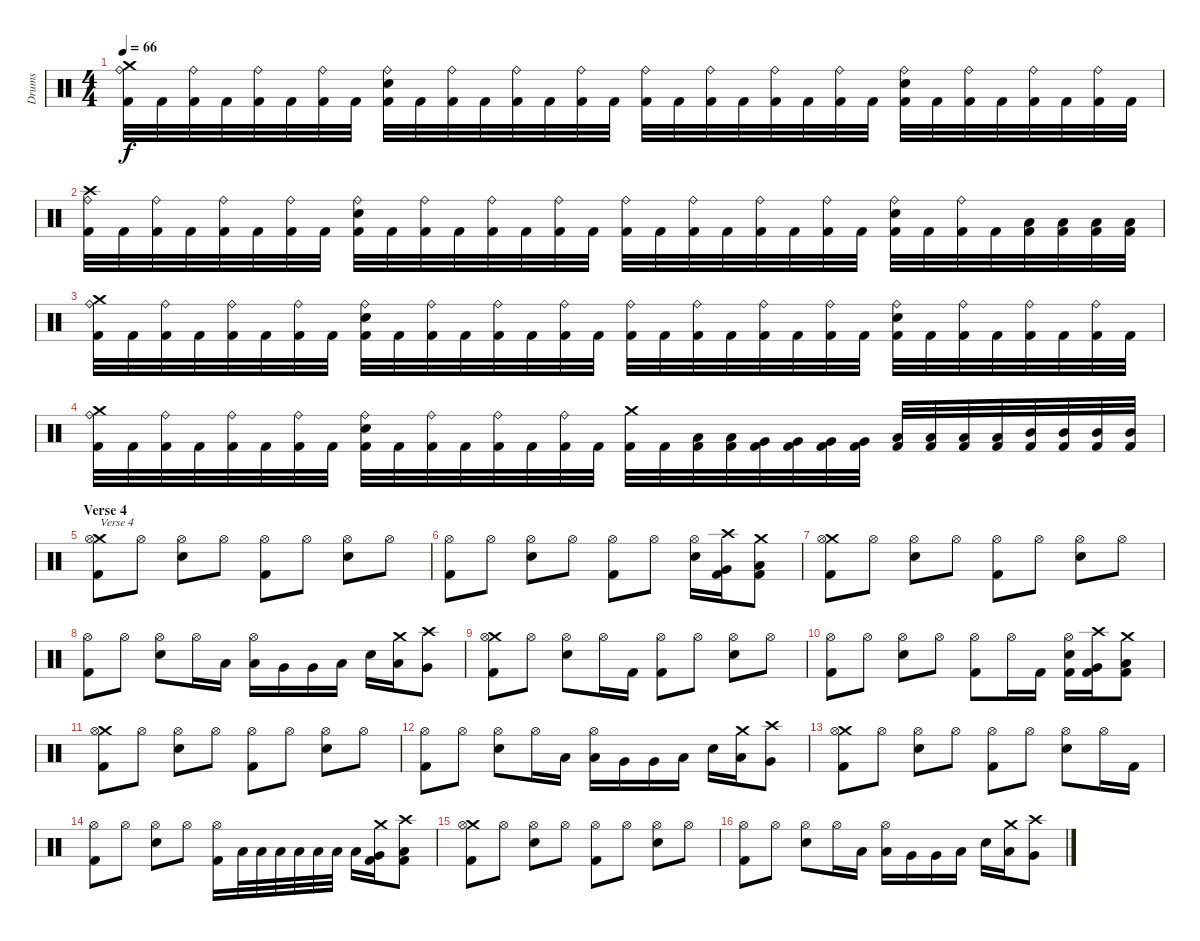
\track ("Drums" "Drums") {instrument percussion}
\staff {score}
\articulation defaults
\ts (4 4)
\tempo 66
\clef neutral
\ks c
("Crash medium (hit)" "Ride (bell)" "Kick (hit) 2").32{dy f} "Kick (hit) 2".32 ("Ride (bell)" "Kick (hit) 2").32 "Kick (hit) 2".32 ("Ride (bell)" "Kick (hit) 2").32 "Kick (hit) 2".32 ("Ride (bell)" "Kick (hit) 2").32 "Kick (hit) 2".32 ("Ride (bell)" "Electric Snare (hit)" "Kick (hit) 2").32 "Kick (hit) 2".32 ("Ride (bell)" "Kick (hit) 2").32 "Kick (hit) 2".32 ("Ride (bell)" "Kick (hit) 2").32 "Kick (hit) 2".32 ("Ride (bell)" "Kick (hit) 2").32 "Kick (hit) 2".32 ("Ride (bell)" "Kick (hit) 2").32 "Kick (hit) 2".32 ("Ride (bell)" "Kick (hit) 2").32 "Kick (hit) 2".32 ("Ride (bell)" "Kick (hit) 2").32 "Kick (hit) 2".32 ("Ride (bell)" "Kick (hit) 2").32 "Kick (hit) 2".32 ("Ride (bell)" "Electric Snare (hit)" "Kick (hit) 2").32 "Kick (hit) 2".32 ("Ride (bell)" "Kick (hit) 2").32 "Kick (hit) 2".32 ("Ride (bell)" "Kick (hit) 2").32 "Kick (hit) 2".32 ("Ride (bell)" "Kick (hit) 2").32 "Kick (hit) 2".32 |
("Crash high (hit)" "Ride (bell)" "Kick (hit) 2").32 "Kick (hit) 2".32 ("Ride (bell)" "Kick (hit) 2").32 "Kick (hit) 2".32 ("Ride (bell)" "Kick (hit) 2").32 "Kick (hit) 2".32 ("Ride (bell)" "Kick (hit) 2").32 "Kick (hit) 2".32 ("Ride (bell)" "Electric Snare (hit)" "Kick (hit) 2").32 "Kick (hit) 2".32 ("Ride (bell)" "Kick (hit) 2").32 "Kick (hit) 2".32 ("Ride (bell)" "Kick (hit) 2").32 "Kick (hit) 2".32 ("Ride (bell)" "Kick (hit) 2").32 "Kick (hit) 2".32 ("Ride (bell)" "Kick (hit) 2").32 "Kick (hit) 2".32 ("Ride (bell)" "Kick (hit) 2").32 "Kick (hit) 2".32 ("Ride (bell)" "Kick (hit) 2").32 "Kick (hit) 2".32 ("Ride (bell)" "Kick (hit) 2").32 "Kick (hit) 2".32 ("Ride (bell)" "Electric Snare (hit)" "Kick (hit) 2").32 "Kick (hit) 2".32 ("Ride (bell)" "Kick (hit) 2").32 "Kick (hit) 2".32 ("Low Floor Tom (hit)" "Kick (hit) 2").32 ("Low Floor Tom (hit)" "Kick (hit) 2").32 ("Low Floor Tom (hit)" "Kick (hit) 2").32 ("Low Floor Tom (hit)" "Kick (hit) 2").32 |
("Crash medium (hit)" "Ride (bell)" "Kick (hit) 2").32 "Kick (hit) 2".32 ("Ride (bell)" "Kick (hit) 2").32 "Kick (hit) 2".32 ("Ride (bell)" "Kick (hit) 2").32 "Kick (hit) 2".32 ("Ride (bell)" "Kick (hit) 2").32 "Kick (hit) 2".32 ("Ride (bell)" "Electric Snare (hit)" "Kick (hit) 2").32 "Kick (hit) 2".32 ("Ride (bell)" "Kick (hit) 2").32 "Kick (hit) 2".32 ("Ride (bell)" "Kick (hit) 2").32 "Kick (hit) 2".32 ("Ride (bell)" "Kick (hit) 2").32 "Kick (hit) 2".32 ("Ride (bell)" "Kick (hit) 2").32 "Kick (hit) 2".32 ("Ride (bell)" "Kick (hit) 2").32 "Kick (hit) 2".32 ("Ride (bell)" "Kick (hit) 2").32 "Kick (hit) 2".32 ("Ride (bell)" "Kick (hit) 2").32 "Kick (hit) 2".32 ("Ride (bell)" "Electric Snare (hit)" "Kick (hit) 2").32 "Kick (hit) 2".32 ("Ride (bell)" "Kick (hit) 2").32 "Kick (hit) 2".32 ("Ride (bell)" "Kick (hit) 2").32 "Kick (hit) 2".32 ("Ride (bell)" "Kick (hit) 2").32 "Kick (hit) 2".32 |
("Crash medium (hit)" "Ride (bell)" "Kick (hit) 2").32 "Kick (hit) 2".32 ("Ride (bell)" "Kick (hit) 2").32 "Kick (hit) 2".32 ("Ride (bell)" "Kick (hit) 2").32 "Kick (hit) 2".32 ("Ride (bell)" "Kick (hit) 2").32 "Kick (hit) 2".32 ("Ride (bell)" "Electric Snare (hit)" "Kick (hit) 2").32 "Kick (hit) 2".32 ("Ride (bell)" "Kick (hit) 2").32 "Kick (hit) 2".32 ("Ride (bell)" "Kick (hit) 2").32 "Kick (hit) 2".32 ("Ride (bell)" "Kick (hit) 2").32 "Kick (hit) 2".32 ("Crash medium (hit)" "Kick (hit) 2").32 "Kick (hit) 2".32 ("Low Floor Tom (hit)" "Kick (hit) 2").32 ("Low Floor Tom (hit)" "Kick (hit) 2").32 ("Very Low Tom (hit)" "Kick (hit) 2").32 ("Very Low Tom (hit)" "Kick (hit) 2").32 ("Very Low Tom (hit)" "Kick (hit) 2").32 ("Very Low Tom (hit)" "Kick (hit) 2").32 ("Low Tom (hit)" "Kick (hit) 2").32 ("Low Tom (hit)" "Kick (hit) 2").32 ("Low Tom (hit)" "Kick (hit) 2").32 ("Low Tom (hit)" "Kick (hit) 2").32 ("Mid Tom (hit)" "Kick (hit) 2").32 ("Mid Tom (hit)" "Kick (hit) 2").32 ("Mid Tom (hit)" "Kick (hit) 2").32 ("Mid Tom (hit)" "Kick (hit) 2").32 |
\section ("" "Verse 4")
("Crash medium (hit)" "Hi-Hat (open)" "Kick (hit) 2").8{txt "Verse 4"} "Hi-Hat (open)".8 ("Hi-Hat (open)" "Electric Snare (hit)").8 "Hi-Hat (open)".8 ("Hi-Hat (open)" "Kick (hit) 2").8 "Hi-Hat (open)".8 ("Hi-Hat (open)" "Electric Snare (hit)").8 "Hi-Hat (open)".8 |
("Hi-Hat (open)" "Kick (hit) 2").8 "Hi-Hat (open)".8 ("Hi-Hat (open)" "Electric Snare (hit)").8 "Hi-Hat (open)".8 ("Hi-Hat (open)" "Kick (hit) 2").8 "Hi-Hat (open)".8 ("Hi-Hat (open)" "Electric Snare (hit)").16 ("Crash high (hit)" "Very Low Tom (hit)" "Kick (hit) 2").16 ("Crash medium (hit)" "Low Floor Tom (hit)" "Kick (hit) 2").8 |
("Crash medium (hit)" "Hi-Hat (open)" "Kick (hit) 2").8 "Hi-Hat (open)".8 ("Hi-Hat (open)" "Electric Snare (hit)").8 "Hi-Hat (open)".8 ("Hi-Hat (open)" "Kick (hit) 2").8 "Hi-Hat (open)".8 ("Hi-Hat (open)" "Electric Snare (hit)").8 "Hi-Hat (open)".8 |
("Hi-Hat (open)" "Kick (hit) 2").8 "Hi-Hat (open)".8 ("Hi-Hat (open)" "Electric Snare (hit)").8 "Hi-Hat (open)".16 "Low Floor Tom (hit)".16 ("Hi-Hat (open)" "Low Floor Tom (hit)").16 "Very Low Tom (hit)".16 "Very Low Tom (hit)".16 "Low Tom (hit)".16 "Electric Snare (hit)".16 ("Crash medium (hit)" "Low Tom (hit)").16 ("Crash high (hit)" "Very Low Tom (hit)").8 |
("Crash medium (hit)" "Hi-Hat (open)" "Kick (hit) 2").8 "Hi-Hat (open)".8 ("Hi-Hat (open)" "Electric Snare (hit)").8 "Hi-Hat (open)".16 "Kick (hit) 2".16 ("Hi-Hat (open)" "Kick (hit) 2").8 "Hi-Hat (open)".8 ("Hi-Hat (open)" "Electric Snare (hit)").8 "Hi-Hat (open)".8 |
("Hi-Hat (open)" "Kick (hit) 2").8 "Hi-Hat (open)".8 ("Hi-Hat (open)" "Electric Snare (hit)").8 "Hi-Hat (open)".8 ("Hi-Hat (open)" "Kick (hit) 2").8 "Hi-Hat (open)".16 "Kick (hit) 2".16 ("Hi-Hat (open)" "Electric Snare (hit)" "Kick (hit) 2").16 ("Crash high (hit)" "Very Low Tom (hit)" "Kick (hit) 2").16 ("Crash medium (hit)" "Low Floor Tom (hit)" "Kick (hit) 2").8 |
("Crash medium (hit)" "Hi-Hat (open)" "Kick (hit) 2").8 "Hi-Hat (open)".8 ("Hi-Hat (open)" "Electric Snare (hit)").8 "Hi-Hat (open)".8 ("Hi-Hat (open)" "Kick (hit) 2").8 "Hi-Hat (open)".8 ("Hi-Hat (open)" "Electric Snare (hit)").8 "Hi-Hat (open)".8 |
("Hi-Hat (open)" "Kick (hit) 2").8 "Hi-Hat (open)".8 ("Hi-Hat (open)" "Electric Snare (hit)").8 "Hi-Hat (open)".16 "Low Floor Tom (hit)".16 ("Hi-Hat (open)" "Low Floor Tom (hit)").16 "Very Low Tom (hit)".16 "Very Low Tom (hit)".16 "Low Tom (hit)".16 "Electric Snare (hit)".16 ("Crash medium (hit)" "Low Tom (hit)").16 ("Crash high (hit)" "Very Low Tom (hit)").8 |
("Crash medium (hit)" "Hi-Hat (open)" "Kick (hit) 2").8 "Hi-Hat (open)".8 ("Hi-Hat (open)" "Electric Snare (hit)").8 "Hi-Hat (open)".8 ("Hi-Hat (open)" "Kick (hit) 2").8 "Hi-Hat (open)".8 ("Hi-Hat (open)" "Electric Snare (hit)").8 "Hi-Hat (open)".16 "Kick (hit) 2".16 |
("Hi-Hat (open)" "Kick (hit) 2").8 "Hi-Hat (open)".8 ("Hi-Hat (open)" "Electric Snare (hit)").8 "Hi-Hat (open)".8 ("Hi-Hat (open)" "Kick (hit) 2").16 "Low Floor Tom (hit)".32 "Low Floor Tom (hit)".32 "Low Floor Tom (hit)".32 "Low Floor Tom (hit)".32 "Low Floor Tom (hit)".32 "Low Floor Tom (hit)".32 "Low Floor Tom (hit)".16 ("Crash medium (hit)" "Very Low Tom (hit)" "Kick (hit) 2").16 ("Crash high (hit)" "Low Floor Tom (hit)" "Kick (hit) 2").8 |
("Crash medium (hit)" "Hi-Hat (open)" "Kick (hit) 2").8 "Hi-Hat (open)".8 ("Hi-Hat (open)" "Electric Snare (hit)").8 "Hi-Hat (open)".8 ("Hi-Hat (open)" "Kick (hit) 2").8 "Hi-Hat (open)".8 ("Hi-Hat (open)" "Electric Snare (hit)").8 "Hi-Hat (open)".8 |
("Hi-Hat (open)" "Kick (hit) 2").8 "Hi-Hat (open)".8 ("Hi-Hat (open)" "Electric Snare (hit)").8 "Hi-Hat (open)".16 "Low Floor Tom (hit)".16 ("Hi-Hat (open)" "Low Floor Tom (hit)").16 "Very Low Tom (hit)".16 "Very Low Tom (hit)".16 "Low Tom (hit)".16 "Electric Snare (hit)".16 ("Crash medium (hit)" "Low Tom (hit)").16 ("Crash high (hit)" "Very Low Tom (hit)").8
